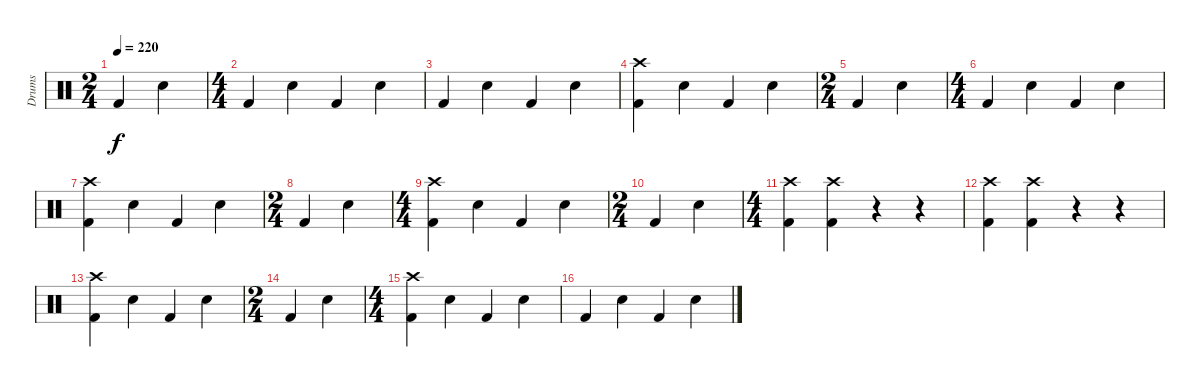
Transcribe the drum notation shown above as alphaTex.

\track ("Drums" "Drums") {instrument percussion}
\staff {score}
\articulation defaults
\ts (2 4)
\tempo 220
\clef neutral
\ks c "Kick (hit) 2".4{dy f} "Electric Snare (hit)".4
|
\ts (4 4)
"Kick (hit) 2".4 "Electric Snare (hit)".4 "Kick (hit) 2".4 "Electric Snare (hit)".4 |
"Kick (hit) 2".4 "Electric Snare (hit)".4 "Kick (hit) 2".4 "Electric Snare (hit)".4 |
("Crash high (hit)" "Kick (hit) 2").4 "Electric Snare (hit)".4 "Kick (hit) 2".4 "Electric Snare (hit)".4 |
\ts (2 4)
"Kick (hit) 2".4 "Electric Snare (hit)".4 |
\ts (4 4)
"Kick (hit) 2".4 "Electric Snare (hit)".4 "Kick (hit) 2".4 "Electric Snare (hit)".4 |
("Kick (hit) 2" "Crash high (hit)").4 "Electric Snare (hit)".4 "Kick (hit) 2".4 "Electric Snare (hit)".4 |
\ts (2 4)
"Kick (hit) 2".4 "Electric Snare (hit)".4 |
\ts (4 4)
("Crash high (hit)" "Kick (hit) 2").4 "Electric Snare (hit)".4 "Kick (hit) 2".4 "Electric Snare (hit)".4 |
\ts (2 4)
"Kick (hit) 2".4 "Electric Snare (hit)".4 |
\ts (4 4)
("Crash high (hit)" "Kick (hit) 2").4 ("Kick (hit) 2" "Crash high (hit)").4 r.4 r.4 |
("Kick (hit) 2" "Crash high (hit)").4 ("Crash high (hit)" "Kick (hit) 2").4 r.4 r.4 |
("Crash high (hit)" "Kick (hit) 2").4 "Electric Snare (hit)".4 "Kick (hit) 2".4 "Electric Snare (hit)".4 |
\ts (2 4)
"Kick (hit) 2".4 "Electric Snare (hit)".4 |
\ts (4 4)
("Crash high (hit)" "Kick (hit) 2").4 "Electric Snare (hit)".4 "Kick (hit) 2".4 "Electric Snare (hit)".4 |
"Kick (hit) 2".4 "Electric Snare (hit)".4 "Kick (hit) 2".4 "Electric Snare (hit)".4
